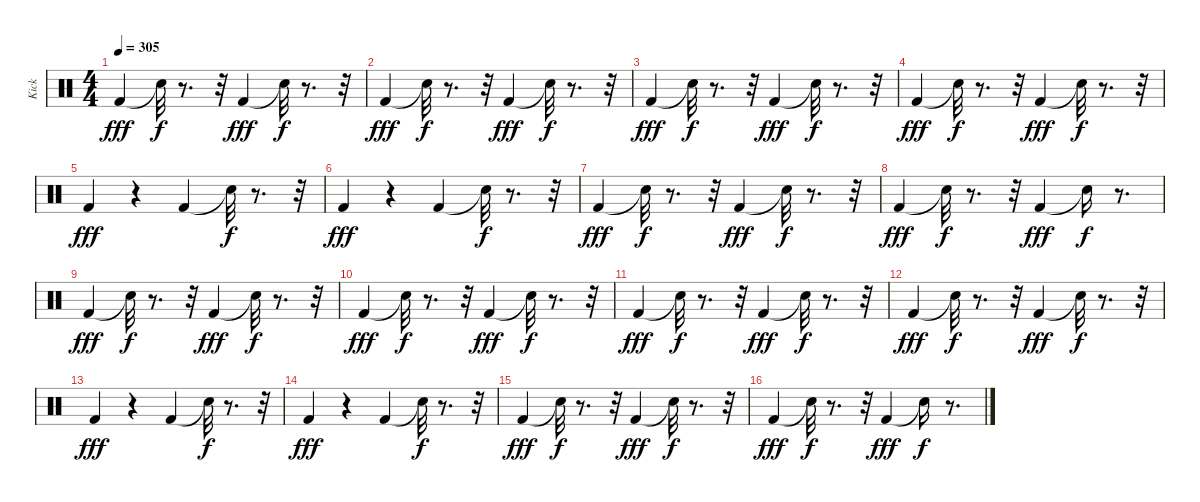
\track ("Kick" "Kick") {instrument percussion}
\staff {score}
\articulation defaults
\ts (4 4)
\tempo 305
\clef neutral
\ks c "Kick (hit) 2".4{dy fff} "Snare (hit)"{t}.32{dy f}
r.8{d} r.32 "Kick (hit) 2".4{dy fff} "Snare (hit)"{t}.32{dy f} r.8{d} r.32 |
"Kick (hit) 2".4{dy fff} "Snare (hit)"{t}.32{dy f} r.8{d} r.32 "Kick (hit) 2".4{dy fff} "Snare (hit)"{t}.32{dy f} r.8{d} r.32 |
"Kick (hit) 2".4{dy fff} "Snare (hit)"{t}.32{dy f} r.8{d} r.32 "Kick (hit) 2".4{dy fff} "Snare (hit)"{t}.32{dy f} r.8{d} r.32 |
"Kick (hit) 2".4{dy fff} "Snare (hit)"{t}.32{dy f} r.8{d} r.32 "Kick (hit) 2".4{dy fff} "Snare (hit)"{t}.32{dy f} r.8{d} r.32 |
"Kick (hit) 2".4{dy fff} r.4 "Kick (hit) 2".4 "Snare (hit)"{t}.32{dy f} r.8{d} r.32 |
"Kick (hit) 2".4{dy fff} r.4 "Kick (hit) 2".4 "Snare (hit)"{t}.32{dy f} r.8{d} r.32 |
"Kick (hit) 2".4{dy fff} "Snare (hit)"{t}.32{dy f} r.8{d} r.32 "Kick (hit) 2".4{dy fff} "Snare (hit)"{t}.32{dy f} r.8{d} r.32 |
"Kick (hit) 2".4{dy fff} "Snare (hit)"{t}.32{dy f} r.8{d} r.32 "Kick (hit) 2".4{dy fff} "Snare (hit)"{t}.16{dy f} r.8{d} |
"Kick (hit) 2".4{dy fff} "Snare (hit)"{t}.32{dy f} r.8{d} r.32 "Kick (hit) 2".4{dy fff} "Snare (hit)"{t}.32{dy f} r.8{d} r.32 |
"Kick (hit) 2".4{dy fff} "Snare (hit)"{t}.32{dy f} r.8{d} r.32 "Kick (hit) 2".4{dy fff} "Snare (hit)"{t}.32{dy f} r.8{d} r.32 |
"Kick (hit) 2".4{dy fff} "Snare (hit)"{t}.32{dy f} r.8{d} r.32 "Kick (hit) 2".4{dy fff} "Snare (hit)"{t}.32{dy f} r.8{d} r.32 |
"Kick (hit) 2".4{dy fff} "Snare (hit)"{t}.32{dy f} r.8{d} r.32 "Kick (hit) 2".4{dy fff} "Snare (hit)"{t}.32{dy f} r.8{d} r.32 |
"Kick (hit) 2".4{dy fff} r.4 "Kick (hit) 2".4 "Snare (hit)"{t}.32{dy f} r.8{d} r.32 |
"Kick (hit) 2".4{dy fff} r.4 "Kick (hit) 2".4 "Snare (hit)"{t}.32{dy f} r.8{d} r.32 |
"Kick (hit) 2".4{dy fff} "Snare (hit)"{t}.32{dy f} r.8{d} r.32 "Kick (hit) 2".4{dy fff} "Snare (hit)"{t}.32{dy f} r.8{d} r.32 |
"Kick (hit) 2".4{dy fff} "Snare (hit)"{t}.32{dy f} r.8{d} r.32 "Kick (hit) 2".4{dy fff} "Snare (hit)"{t}.16{dy f} r.8{d}
